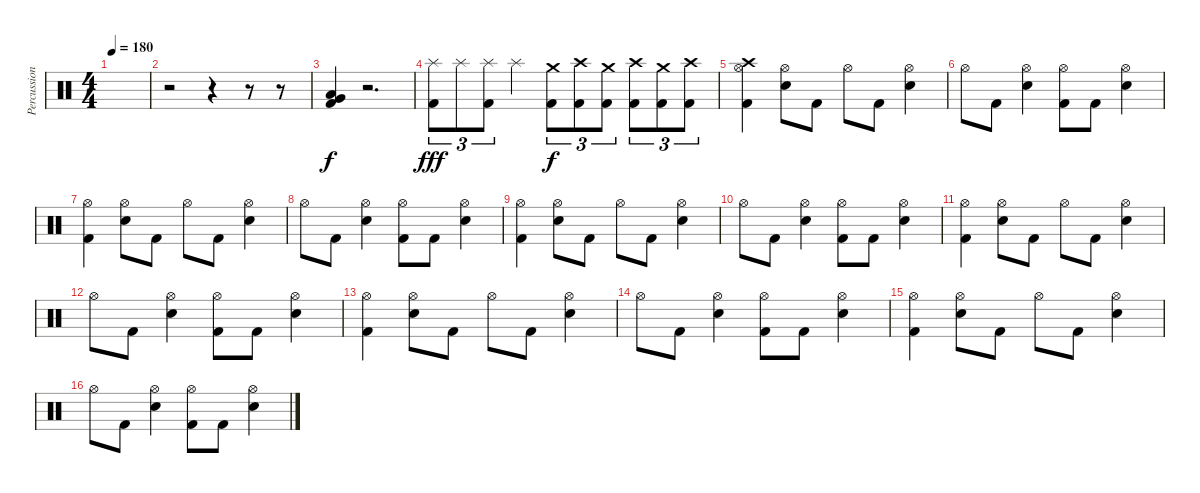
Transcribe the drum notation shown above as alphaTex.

\track ("Percussion" "Percussion") {instrument percussion}
\staff {score}
\articulation defaults
\ts (4 4)
\tempo 180
\clef neutral
\ks c
|
r.2 r.4 r.8 r.8 |
("Low Floor Tom (hit)" "Very Low Tom (hit)" "Kick (hit) 2").4 r.2{d} |
("Splash (hit)" "Kick (hit) 2").8{tu (3 2) dy fff} "Splash (hit)".8{tu (3 2)} ("Splash (hit)" "Kick (hit) 2").8{tu (3 2)} "Splash (hit)".4 ("Crash medium (hit)" "Kick (hit) 2").8{tu (3 2) dy f} ("Crash high (hit)" "Kick (hit) 2").8{tu (3 2)} ("Crash medium (hit)" "Kick (hit) 2").8{tu (3 2)} ("Crash high (hit)" "Kick (hit) 2").8{tu (3 2)} ("Crash medium (hit)" "Kick (hit) 2").8{tu (3 2)} ("Crash high (hit)" "Kick (hit) 2").8{tu (3 2)} |
("Hi-Hat (open)" "Crash high (hit)" "Kick (hit) 2").4 ("Hi-Hat (open)" "Electric Snare (hit)").8 "Kick (hit) 2".8 "Hi-Hat (open)".8 "Kick (hit) 2".8 ("Hi-Hat (open)" "Electric Snare (hit)").4 |
"Hi-Hat (open)".8 "Kick (hit) 2".8 ("Hi-Hat (open)" "Electric Snare (hit)").4 ("Hi-Hat (open)" "Kick (hit) 2").8 "Kick (hit) 2".8 ("Hi-Hat (open)" "Electric Snare (hit)").4 |
("Hi-Hat (open)" "Kick (hit) 2").4 ("Hi-Hat (open)" "Electric Snare (hit)").8 "Kick (hit) 2".8 "Hi-Hat (open)".8 "Kick (hit) 2".8 ("Hi-Hat (open)" "Electric Snare (hit)").4 |
"Hi-Hat (open)".8 "Kick (hit) 2".8 ("Hi-Hat (open)" "Electric Snare (hit)").4 ("Hi-Hat (open)" "Kick (hit) 2").8 "Kick (hit) 2".8 ("Hi-Hat (open)" "Electric Snare (hit)").4 |
("Hi-Hat (open)" "Kick (hit) 2").4 ("Hi-Hat (open)" "Electric Snare (hit)").8 "Kick (hit) 2".8 "Hi-Hat (open)".8 "Kick (hit) 2".8 ("Hi-Hat (open)" "Electric Snare (hit)").4 |
"Hi-Hat (open)".8 "Kick (hit) 2".8 ("Hi-Hat (open)" "Electric Snare (hit)").4 ("Hi-Hat (open)" "Kick (hit) 2").8 "Kick (hit) 2".8 ("Hi-Hat (open)" "Electric Snare (hit)").4 |
("Hi-Hat (open)" "Kick (hit) 2").4 ("Hi-Hat (open)" "Electric Snare (hit)").8 "Kick (hit) 2".8 "Hi-Hat (open)".8 "Kick (hit) 2".8 ("Hi-Hat (open)" "Electric Snare (hit)").4 |
"Hi-Hat (open)".8 "Kick (hit) 2".8 ("Hi-Hat (open)" "Electric Snare (hit)").4 ("Hi-Hat (open)" "Kick (hit) 2").8 "Kick (hit) 2".8 ("Hi-Hat (open)" "Electric Snare (hit)").4 |
("Hi-Hat (open)" "Kick (hit) 2").4 ("Hi-Hat (open)" "Electric Snare (hit)").8 "Kick (hit) 2".8 "Hi-Hat (open)".8 "Kick (hit) 2".8 ("Hi-Hat (open)" "Electric Snare (hit)").4 |
"Hi-Hat (open)".8 "Kick (hit) 2".8 ("Hi-Hat (open)" "Electric Snare (hit)").4 ("Hi-Hat (open)" "Kick (hit) 2").8 "Kick (hit) 2".8 ("Hi-Hat (open)" "Electric Snare (hit)").4 |
("Hi-Hat (open)" "Kick (hit) 2").4 ("Hi-Hat (open)" "Electric Snare (hit)").8 "Kick (hit) 2".8 "Hi-Hat (open)".8 "Kick (hit) 2".8 ("Hi-Hat (open)" "Electric Snare (hit)").4 |
"Hi-Hat (open)".8 "Kick (hit) 2".8 ("Hi-Hat (open)" "Electric Snare (hit)").4 ("Hi-Hat (open)" "Kick (hit) 2").8 "Kick (hit) 2".8 ("Hi-Hat (open)" "Electric Snare (hit)").4
